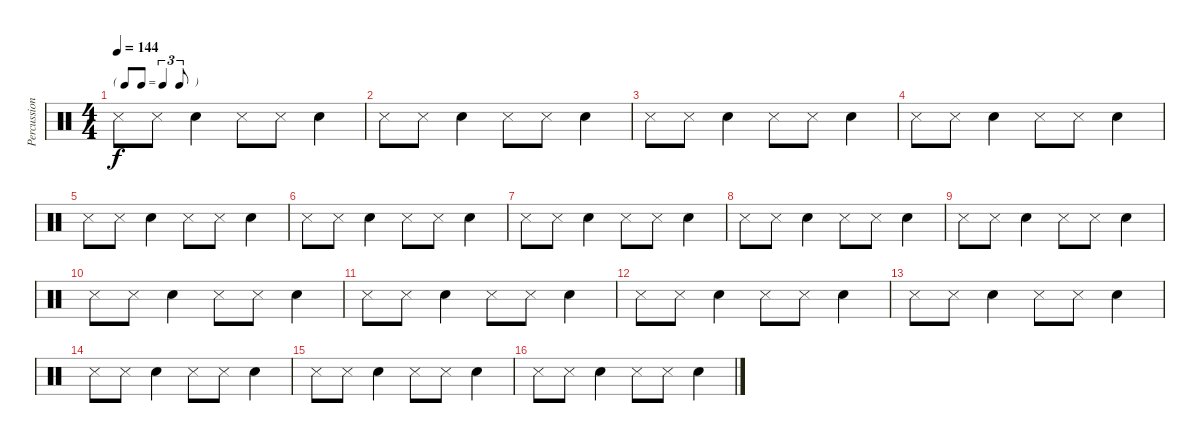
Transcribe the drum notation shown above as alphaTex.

\track ("Percussions" "Percussion") {instrument percussion}
\staff {score}
\articulation defaults
\ts (4 4)
\tf triplet8th
\tempo 144
\clef neutral
\ks c "Snare (side stick) 3".8{dy f} "Snare (side stick) 3".8 "Snare (hit) 2".4 "Snare (side stick) 3".8 "Snare (side stick) 3".8 "Snare (hit) 2".4
|
"Snare (side stick) 3".8 "Snare (side stick) 3".8 "Snare (hit) 2".4 "Snare (side stick) 3".8 "Snare (side stick) 3".8 "Snare (hit) 2".4 |
"Snare (side stick) 3".8 "Snare (side stick) 3".8 "Snare (hit) 2".4 "Snare (side stick) 3".8 "Snare (side stick) 3".8 "Snare (hit) 2".4 |
"Snare (side stick) 3".8 "Snare (side stick) 3".8 "Snare (hit) 2".4 "Snare (side stick) 3".8 "Snare (side stick) 3".8 "Snare (hit) 2".4 |
"Snare (side stick) 3".8 "Snare (side stick) 3".8 "Snare (hit) 2".4 "Snare (side stick) 3".8 "Snare (side stick) 3".8 "Snare (hit) 2".4 |
"Snare (side stick) 3".8 "Snare (side stick) 3".8 "Snare (hit) 2".4 "Snare (side stick) 3".8 "Snare (side stick) 3".8 "Snare (hit) 2".4 |
"Snare (side stick) 3".8 "Snare (side stick) 3".8 "Snare (hit) 2".4 "Snare (side stick) 3".8 "Snare (side stick) 3".8 "Snare (hit) 2".4 |
"Snare (side stick) 3".8 "Snare (side stick) 3".8 "Snare (hit) 2".4 "Snare (side stick) 3".8 "Snare (side stick) 3".8 "Snare (hit) 2".4 |
"Snare (side stick) 3".8 "Snare (side stick) 3".8 "Snare (hit) 2".4 "Snare (side stick) 3".8 "Snare (side stick) 3".8 "Snare (hit) 2".4 |
"Snare (side stick) 3".8 "Snare (side stick) 3".8 "Snare (hit) 2".4 "Snare (side stick) 3".8 "Snare (side stick) 3".8 "Snare (hit) 2".4 |
"Snare (side stick) 3".8 "Snare (side stick) 3".8 "Snare (hit) 2".4 "Snare (side stick) 3".8 "Snare (side stick) 3".8 "Snare (hit) 2".4 |
"Snare (side stick) 3".8 "Snare (side stick) 3".8 "Snare (hit) 2".4 "Snare (side stick) 3".8 "Snare (side stick) 3".8 "Snare (hit) 2".4 |
"Snare (side stick) 3".8 "Snare (side stick) 3".8 "Snare (hit) 2".4 "Snare (side stick) 3".8 "Snare (side stick) 3".8 "Snare (hit) 2".4 |
"Snare (side stick) 3".8 "Snare (side stick) 3".8 "Snare (hit) 2".4 "Snare (side stick) 3".8 "Snare (side stick) 3".8 "Snare (hit) 2".4 |
"Snare (side stick) 3".8 "Snare (side stick) 3".8 "Snare (hit) 2".4 "Snare (side stick) 3".8 "Snare (side stick) 3".8 "Snare (hit) 2".4 |
"Snare (side stick) 3".8 "Snare (side stick) 3".8 "Snare (hit) 2".4 "Snare (side stick) 3".8 "Snare (side stick) 3".8 "Snare (hit) 2".4
